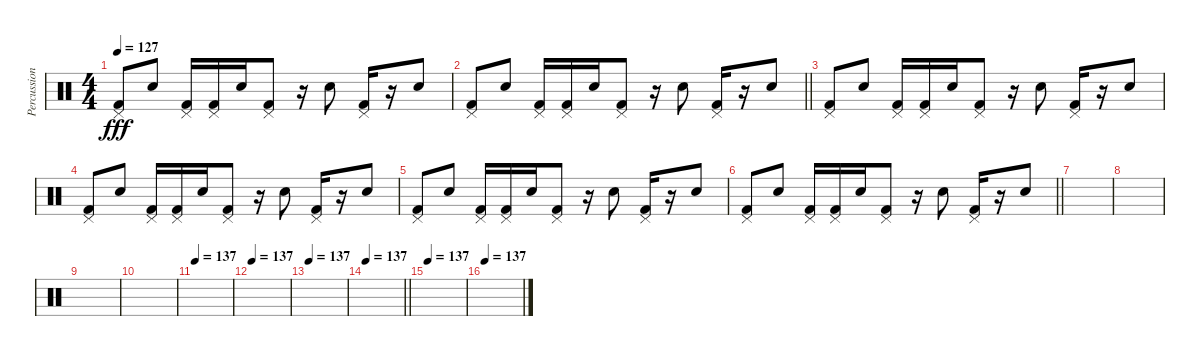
\track ("Percussion" "Percussion") {instrument percussion}
\staff {score}
\articulation defaults
\ts (4 4)
\tempo 127
\clef neutral
\ks c
("Pedal Hi-Hat (hit)" "Kick (hit) 2").8{dy fff} "Snare (hit) 2".8 ("Pedal Hi-Hat (hit)" "Kick (hit) 2").16 ("Pedal Hi-Hat (hit)" "Kick (hit) 2").16 "Snare (hit) 2".16 ("Pedal Hi-Hat (hit)" "Kick (hit) 2").8 r.16 "Snare (hit) 2".8 ("Pedal Hi-Hat (hit)" "Kick (hit) 2").16 r.16 "Snare (hit) 2".8 |
\barLineRight lightlight
("Pedal Hi-Hat (hit)" "Kick (hit) 2").8 "Snare (hit) 2".8 ("Pedal Hi-Hat (hit)" "Kick (hit) 2").16 ("Pedal Hi-Hat (hit)" "Kick (hit) 2").16 "Snare (hit) 2".16 ("Pedal Hi-Hat (hit)" "Kick (hit) 2").8 r.16 "Snare (hit) 2".8 ("Pedal Hi-Hat (hit)" "Kick (hit) 2").16 r.16 "Snare (hit) 2".8 |
("Pedal Hi-Hat (hit)" "Kick (hit) 2").8 "Snare (hit) 2".8 ("Pedal Hi-Hat (hit)" "Kick (hit) 2").16 ("Pedal Hi-Hat (hit)" "Kick (hit) 2").16 "Snare (hit) 2".16 ("Pedal Hi-Hat (hit)" "Kick (hit) 2").8 r.16 "Snare (hit) 2".8 ("Pedal Hi-Hat (hit)" "Kick (hit) 2").16 r.16 "Snare (hit) 2".8 |
("Pedal Hi-Hat (hit)" "Kick (hit) 2").8 "Snare (hit) 2".8 ("Pedal Hi-Hat (hit)" "Kick (hit) 2").16 ("Pedal Hi-Hat (hit)" "Kick (hit) 2").16 "Snare (hit) 2".16 ("Pedal Hi-Hat (hit)" "Kick (hit) 2").8 r.16 "Snare (hit) 2".8 ("Pedal Hi-Hat (hit)" "Kick (hit) 2").16 r.16 "Snare (hit) 2".8 |
("Pedal Hi-Hat (hit)" "Kick (hit) 2").8 "Snare (hit) 2".8 ("Pedal Hi-Hat (hit)" "Kick (hit) 2").16 ("Pedal Hi-Hat (hit)" "Kick (hit) 2").16 "Snare (hit) 2".16 ("Pedal Hi-Hat (hit)" "Kick (hit) 2").8 r.16 "Snare (hit) 2".8 ("Pedal Hi-Hat (hit)" "Kick (hit) 2").16 r.16 "Snare (hit) 2".8 |
\barLineRight lightlight
("Pedal Hi-Hat (hit)" "Kick (hit) 2").8 "Snare (hit) 2".8 ("Pedal Hi-Hat (hit)" "Kick (hit) 2").16 ("Pedal Hi-Hat (hit)" "Kick (hit) 2").16 "Snare (hit) 2".16 ("Pedal Hi-Hat (hit)" "Kick (hit) 2").8 r.16 "Snare (hit) 2".8 ("Pedal Hi-Hat (hit)" "Kick (hit) 2").16 r.16 "Snare (hit) 2".8 |
|
|
|
|
\tempo 137
|
\tempo 137
|
\tempo 137
|
\tempo 137
\barLineRight lightlight
|
\tempo 137
|
\tempo 137
